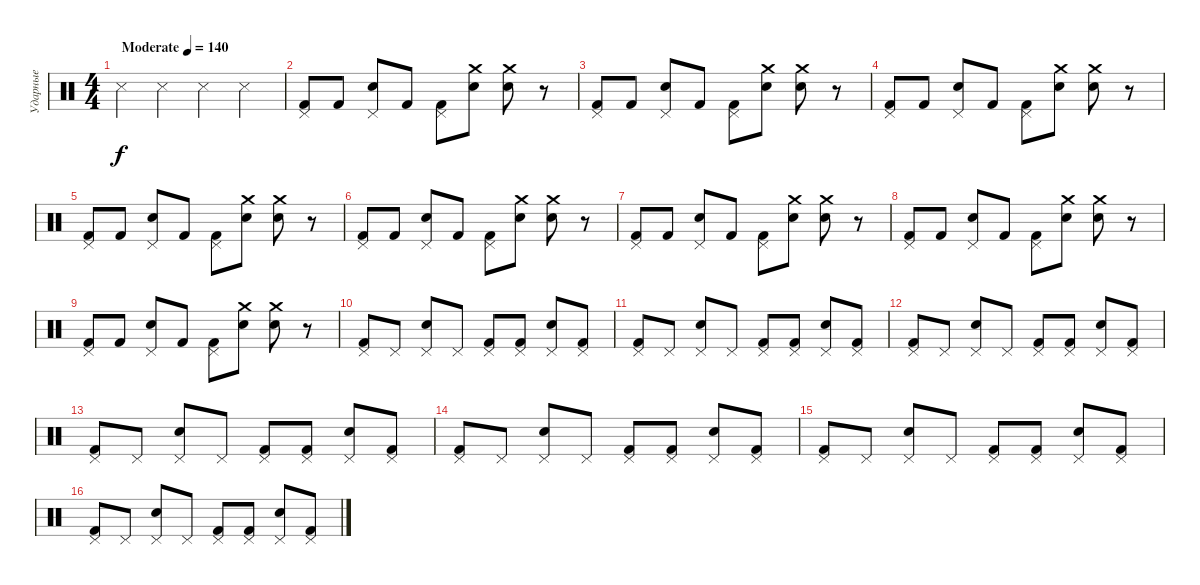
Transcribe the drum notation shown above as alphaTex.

\track ("Ударные" "Ударные") {instrument percussion}
\staff {score}
\articulation defaults
\ts (4 4)
\tempo (140 "Moderate")
\clef neutral
\ks c "Snare (side stick) 3".4{dy f} "Snare (side stick) 3".4 "Snare (side stick) 3".4 "Snare (side stick) 3".4
|
("Pedal Hi-Hat (hit)" "Kick (hit) 2").8 "Kick (hit) 2".8 ("Pedal Hi-Hat (hit)" "Snare (hit) 2").8 "Kick (hit) 2".8 ("Pedal Hi-Hat (hit)" "Kick (hit) 2").8 ("Crash medium (hit)" "Snare (hit) 2").8 ("Crash medium (hit)" "Snare (hit) 2").8 r.8 |
("Pedal Hi-Hat (hit)" "Kick (hit) 2").8 "Kick (hit) 2".8 ("Pedal Hi-Hat (hit)" "Snare (hit) 2").8 "Kick (hit) 2".8 ("Pedal Hi-Hat (hit)" "Kick (hit) 2").8 ("Crash medium (hit)" "Snare (hit) 2").8 ("Crash medium (hit)" "Snare (hit) 2").8 r.8 |
("Pedal Hi-Hat (hit)" "Kick (hit) 2").8 "Kick (hit) 2".8 ("Pedal Hi-Hat (hit)" "Snare (hit) 2").8 "Kick (hit) 2".8 ("Pedal Hi-Hat (hit)" "Kick (hit) 2").8 ("Crash medium (hit)" "Snare (hit) 2").8 ("Crash medium (hit)" "Snare (hit) 2").8 r.8 |
("Pedal Hi-Hat (hit)" "Kick (hit) 2").8 "Kick (hit) 2".8 ("Pedal Hi-Hat (hit)" "Snare (hit) 2").8 "Kick (hit) 2".8 ("Pedal Hi-Hat (hit)" "Kick (hit) 2").8 ("Crash medium (hit)" "Snare (hit) 2").8 ("Crash medium (hit)" "Snare (hit) 2").8 r.8 |
("Pedal Hi-Hat (hit)" "Kick (hit) 2").8 "Kick (hit) 2".8 ("Pedal Hi-Hat (hit)" "Snare (hit) 2").8 "Kick (hit) 2".8 ("Pedal Hi-Hat (hit)" "Kick (hit) 2").8 ("Crash medium (hit)" "Snare (hit) 2").8 ("Crash medium (hit)" "Snare (hit) 2").8 r.8 |
("Pedal Hi-Hat (hit)" "Kick (hit) 2").8 "Kick (hit) 2".8 ("Pedal Hi-Hat (hit)" "Snare (hit) 2").8 "Kick (hit) 2".8 ("Pedal Hi-Hat (hit)" "Kick (hit) 2").8 ("Crash medium (hit)" "Snare (hit) 2").8 ("Crash medium (hit)" "Snare (hit) 2").8 r.8 |
("Pedal Hi-Hat (hit)" "Kick (hit) 2").8 "Kick (hit) 2".8 ("Pedal Hi-Hat (hit)" "Snare (hit) 2").8 "Kick (hit) 2".8 ("Pedal Hi-Hat (hit)" "Kick (hit) 2").8 ("Crash medium (hit)" "Snare (hit) 2").8 ("Crash medium (hit)" "Snare (hit) 2").8 r.8 |
("Pedal Hi-Hat (hit)" "Kick (hit) 2").8 "Kick (hit) 2".8 ("Pedal Hi-Hat (hit)" "Snare (hit) 2").8 "Kick (hit) 2".8 ("Pedal Hi-Hat (hit)" "Kick (hit) 2").8 ("Crash medium (hit)" "Snare (hit) 2").8 ("Crash medium (hit)" "Snare (hit) 2").8 r.8 |
("Pedal Hi-Hat (hit)" "Kick (hit) 2").8 "Pedal Hi-Hat (hit)".8 ("Pedal Hi-Hat (hit)" "Snare (hit) 2").8 "Pedal Hi-Hat (hit)".8 ("Pedal Hi-Hat (hit)" "Kick (hit) 2").8 ("Pedal Hi-Hat (hit)" "Kick (hit) 2").8 ("Pedal Hi-Hat (hit)" "Snare (hit) 2").8 ("Pedal Hi-Hat (hit)" "Kick (hit) 2").8 |
("Pedal Hi-Hat (hit)" "Kick (hit) 2").8 "Pedal Hi-Hat (hit)".8 ("Pedal Hi-Hat (hit)" "Snare (hit) 2").8 "Pedal Hi-Hat (hit)".8 ("Pedal Hi-Hat (hit)" "Kick (hit) 2").8 ("Pedal Hi-Hat (hit)" "Kick (hit) 2").8 ("Pedal Hi-Hat (hit)" "Snare (hit) 2").8 ("Pedal Hi-Hat (hit)" "Kick (hit) 2").8 |
("Pedal Hi-Hat (hit)" "Kick (hit) 2").8 "Pedal Hi-Hat (hit)".8 ("Pedal Hi-Hat (hit)" "Snare (hit) 2").8 "Pedal Hi-Hat (hit)".8 ("Pedal Hi-Hat (hit)" "Kick (hit) 2").8 ("Pedal Hi-Hat (hit)" "Kick (hit) 2").8 ("Pedal Hi-Hat (hit)" "Snare (hit) 2").8 ("Pedal Hi-Hat (hit)" "Kick (hit) 2").8 |
("Pedal Hi-Hat (hit)" "Kick (hit) 2").8 "Pedal Hi-Hat (hit)".8 ("Pedal Hi-Hat (hit)" "Snare (hit) 2").8 "Pedal Hi-Hat (hit)".8 ("Pedal Hi-Hat (hit)" "Kick (hit) 2").8 ("Pedal Hi-Hat (hit)" "Kick (hit) 2").8 ("Pedal Hi-Hat (hit)" "Snare (hit) 2").8 ("Pedal Hi-Hat (hit)" "Kick (hit) 2").8 |
("Pedal Hi-Hat (hit)" "Kick (hit) 2").8 "Pedal Hi-Hat (hit)".8 ("Pedal Hi-Hat (hit)" "Snare (hit) 2").8 "Pedal Hi-Hat (hit)".8 ("Pedal Hi-Hat (hit)" "Kick (hit) 2").8 ("Pedal Hi-Hat (hit)" "Kick (hit) 2").8 ("Pedal Hi-Hat (hit)" "Snare (hit) 2").8 ("Pedal Hi-Hat (hit)" "Kick (hit) 2").8 |
("Pedal Hi-Hat (hit)" "Kick (hit) 2").8 "Pedal Hi-Hat (hit)".8 ("Pedal Hi-Hat (hit)" "Snare (hit) 2").8 "Pedal Hi-Hat (hit)".8 ("Pedal Hi-Hat (hit)" "Kick (hit) 2").8 ("Pedal Hi-Hat (hit)" "Kick (hit) 2").8 ("Pedal Hi-Hat (hit)" "Snare (hit) 2").8 ("Pedal Hi-Hat (hit)" "Kick (hit) 2").8 |
("Pedal Hi-Hat (hit)" "Kick (hit) 2").8 "Pedal Hi-Hat (hit)".8 ("Pedal Hi-Hat (hit)" "Snare (hit) 2").8 "Pedal Hi-Hat (hit)".8 ("Pedal Hi-Hat (hit)" "Kick (hit) 2").8 ("Pedal Hi-Hat (hit)" "Kick (hit) 2").8 ("Pedal Hi-Hat (hit)" "Snare (hit) 2").8 ("Pedal Hi-Hat (hit)" "Kick (hit) 2").8
